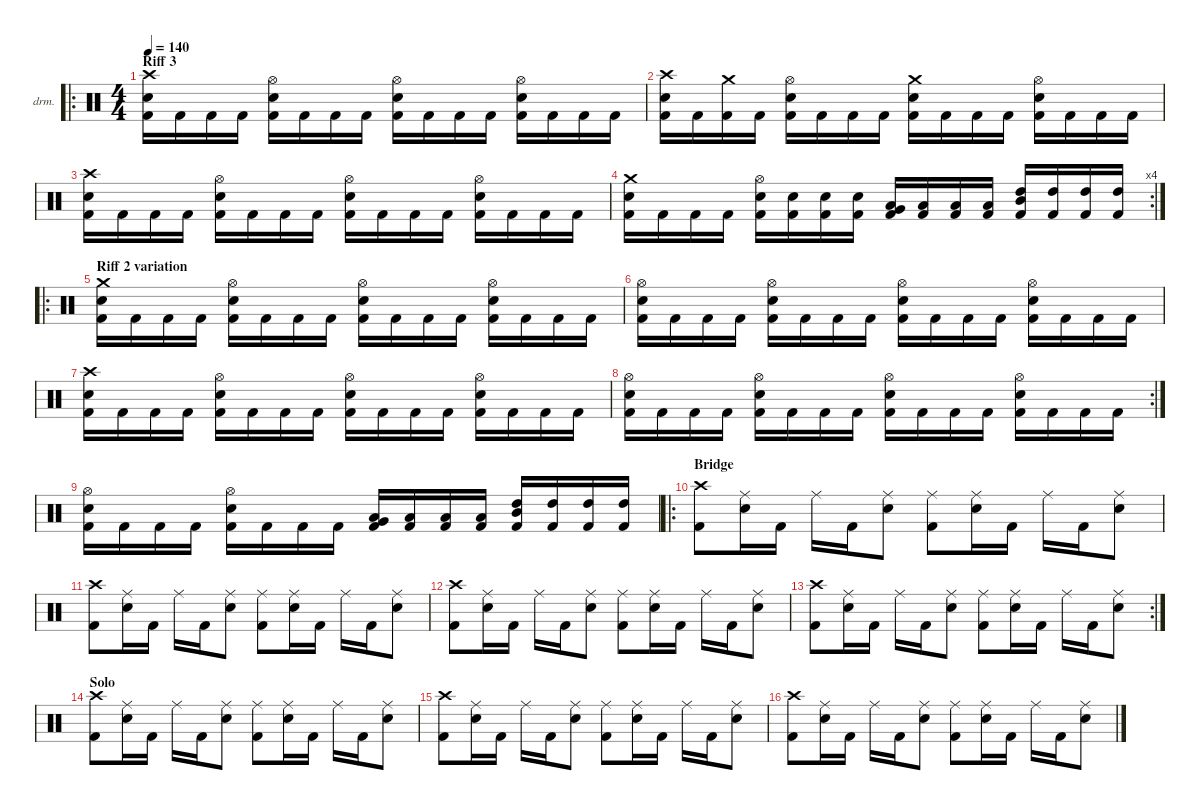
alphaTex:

\defaultSystemsLayout 4
\hideDynamics
\bracketExtendMode nobrackets
\firstSystemTrackNameOrientation horizontal
\otherSystemsTrackNameOrientation horizontal
\track ("Drumkit" "drm.") {instrument percussion}
\staff {score}
\articulation defaults
\ro
\ts (4 4)
\section ("" "Riff 3")
\tempo 140
\clef neutral
\ks c
("Crash high (hit)" "Snare (hit) 2" "Kick (hit) 2").16{dy f} "Kick (hit) 2".16 "Kick (hit) 2".16 "Kick (hit) 2".16 ("Hi-Hat (open)" "Snare (hit) 2" "Kick (hit) 2").16 "Kick (hit) 2".16 "Kick (hit) 2".16 "Kick (hit) 2".16 ("Hi-Hat (open)" "Snare (hit) 2" "Kick (hit) 2").16 "Kick (hit) 2".16 "Kick (hit) 2".16 "Kick (hit) 2".16 ("Hi-Hat (open)" "Snare (hit) 2" "Kick (hit) 2").16 "Kick (hit) 2".16 "Kick (hit) 2".16 "Kick (hit) 2".16 |
("Crash high (hit)" "Snare (hit) 2" "Kick (hit) 2").16 "Kick (hit) 2".16 ("Kick (hit) 2" "Crash medium (hit)").16 "Kick (hit) 2".16 ("Hi-Hat (open)" "Snare (hit) 2" "Kick (hit) 2").16 "Kick (hit) 2".16 "Kick (hit) 2".16 "Kick (hit) 2".16 ("Snare (hit) 2" "Kick (hit) 2" "Crash medium (hit)").16 "Kick (hit) 2".16 "Kick (hit) 2".16 "Kick (hit) 2".16 ("Hi-Hat (open)" "Snare (hit) 2" "Kick (hit) 2").16 "Kick (hit) 2".16 "Kick (hit) 2".16 "Kick (hit) 2".16 |
("Crash high (hit)" "Snare (hit) 2" "Kick (hit) 2").16 "Kick (hit) 2".16 "Kick (hit) 2".16 "Kick (hit) 2".16 ("Hi-Hat (open)" "Snare (hit) 2" "Kick (hit) 2").16 "Kick (hit) 2".16 "Kick (hit) 2".16 "Kick (hit) 2".16 ("Hi-Hat (open)" "Snare (hit) 2" "Kick (hit) 2").16 "Kick (hit) 2".16 "Kick (hit) 2".16 "Kick (hit) 2".16 ("Hi-Hat (open)" "Snare (hit) 2" "Kick (hit) 2").16 "Kick (hit) 2".16 "Kick (hit) 2".16 "Kick (hit) 2".16 |
\rc 4
("Snare (hit) 2" "Kick (hit) 2" "Crash medium (hit)").16 "Kick (hit) 2".16 "Kick (hit) 2".16 "Kick (hit) 2".16 ("Hi-Hat (open)" "Snare (hit) 2" "Kick (hit) 2").16 ("Kick (hit) 2" "Snare (hit) 2").16 ("Kick (hit) 2" "Snare (hit) 2").16 ("Kick (hit) 2" "Snare (hit) 2").16 ("Kick (hit) 2" "Very Low Tom (hit)" "Low Tom (hit)").16 ("Kick (hit) 2" "Low Tom (hit)").16 ("Kick (hit) 2" "Low Tom (hit)").16 ("Kick (hit) 2" "Low Tom (hit)").16 ("High Tom (hit)" "Mid Tom (hit)" "Kick (hit) 2").16 ("Kick (hit) 2" "High Tom (hit)").16 ("High Tom (hit)" "Kick (hit) 2").16 ("High Tom (hit)" "Kick (hit) 2").16 |
\ro
\section ("" "Riff 2 variation")
("Crash medium (hit)" "Snare (hit) 2" "Kick (hit) 2").16{dy mf} "Kick (hit) 2".16 "Kick (hit) 2".16 "Kick (hit) 2".16 ("Hi-Hat (open)" "Snare (hit) 2" "Kick (hit) 2").16 "Kick (hit) 2".16 "Kick (hit) 2".16 "Kick (hit) 2".16 ("Hi-Hat (open)" "Snare (hit) 2" "Kick (hit) 2").16 "Kick (hit) 2".16 "Kick (hit) 2".16 "Kick (hit) 2".16 ("Hi-Hat (open)" "Snare (hit) 2" "Kick (hit) 2").16 "Kick (hit) 2".16 "Kick (hit) 2".16 "Kick (hit) 2".16 |
("Hi-Hat (open)" "Snare (hit) 2" "Kick (hit) 2").16 "Kick (hit) 2".16 "Kick (hit) 2".16 "Kick (hit) 2".16 ("Hi-Hat (open)" "Snare (hit) 2" "Kick (hit) 2").16 "Kick (hit) 2".16 "Kick (hit) 2".16 "Kick (hit) 2".16 ("Hi-Hat (open)" "Snare (hit) 2" "Kick (hit) 2").16 "Kick (hit) 2".16 "Kick (hit) 2".16 "Kick (hit) 2".16 ("Hi-Hat (open)" "Snare (hit) 2" "Kick (hit) 2").16 "Kick (hit) 2".16 "Kick (hit) 2".16 "Kick (hit) 2".16 |
("Crash high (hit)" "Snare (hit) 2" "Kick (hit) 2").16 "Kick (hit) 2".16 "Kick (hit) 2".16 "Kick (hit) 2".16 ("Hi-Hat (open)" "Snare (hit) 2" "Kick (hit) 2").16 "Kick (hit) 2".16 "Kick (hit) 2".16 "Kick (hit) 2".16 ("Hi-Hat (open)" "Snare (hit) 2" "Kick (hit) 2").16 "Kick (hit) 2".16 "Kick (hit) 2".16 "Kick (hit) 2".16 ("Hi-Hat (open)" "Snare (hit) 2" "Kick (hit) 2").16 "Kick (hit) 2".16 "Kick (hit) 2".16 "Kick (hit) 2".16 |
\rc 2
("Hi-Hat (open)" "Snare (hit) 2" "Kick (hit) 2").16 "Kick (hit) 2".16 "Kick (hit) 2".16 "Kick (hit) 2".16 ("Hi-Hat (open)" "Snare (hit) 2" "Kick (hit) 2").16 "Kick (hit) 2".16 "Kick (hit) 2".16 "Kick (hit) 2".16 ("Hi-Hat (open)" "Snare (hit) 2" "Kick (hit) 2").16 "Kick (hit) 2".16 "Kick (hit) 2".16 "Kick (hit) 2".16 ("Hi-Hat (open)" "Snare (hit) 2" "Kick (hit) 2").16 "Kick (hit) 2".16 "Kick (hit) 2".16 "Kick (hit) 2".16 |
("Hi-Hat (open)" "Snare (hit) 2" "Kick (hit) 2").16 "Kick (hit) 2".16 "Kick (hit) 2".16 "Kick (hit) 2".16 ("Hi-Hat (open)" "Snare (hit) 2" "Kick (hit) 2").16 "Kick (hit) 2".16 "Kick (hit) 2".16 "Kick (hit) 2".16 ("Kick (hit) 2" "Very Low Tom (hit)" "Low Tom (hit)").16{dy f} ("Kick (hit) 2" "Low Tom (hit)").16 ("Kick (hit) 2" "Low Tom (hit)").16 ("Kick (hit) 2" "Low Tom (hit)").16 ("High Tom (hit)" "Mid Tom (hit)" "Kick (hit) 2").16 ("Kick (hit) 2" "High Tom (hit)").16 ("High Tom (hit)" "Kick (hit) 2").16 ("High Tom (hit)" "Kick (hit) 2").16 |
\ro
\section ("" "Bridge")
("Crash high (hit)" "Kick (hit) 2").8 ("Ride (middle)" "Snare (hit) 2").16 "Kick (hit) 2".16 "Ride (middle)".16 "Kick (hit) 2".16 ("Ride (middle)" "Snare (hit) 2").8 ("Ride (middle)" "Kick (hit) 2").8 ("Ride (middle)" "Snare (hit) 2").16 "Kick (hit) 2".16 "Ride (middle)".16 "Kick (hit) 2".16 ("Ride (middle)" "Snare (hit) 2").8 |
("Crash high (hit)" "Kick (hit) 2").8 ("Ride (middle)" "Snare (hit) 2").16 "Kick (hit) 2".16 "Ride (middle)".16 "Kick (hit) 2".16 ("Ride (middle)" "Snare (hit) 2").8 ("Ride (middle)" "Kick (hit) 2").8 ("Ride (middle)" "Snare (hit) 2").16 "Kick (hit) 2".16 "Ride (middle)".16 "Kick (hit) 2".16 ("Ride (middle)" "Snare (hit) 2").8 |
("Crash high (hit)" "Kick (hit) 2").8 ("Ride (middle)" "Snare (hit) 2").16 "Kick (hit) 2".16 "Ride (middle)".16 "Kick (hit) 2".16 ("Ride (middle)" "Snare (hit) 2").8 ("Ride (middle)" "Kick (hit) 2").8 ("Ride (middle)" "Snare (hit) 2").16 "Kick (hit) 2".16 "Ride (middle)".16 "Kick (hit) 2".16 ("Ride (middle)" "Snare (hit) 2").8 |
\rc 2
("Crash high (hit)" "Kick (hit) 2").8 ("Ride (middle)" "Snare (hit) 2").16 "Kick (hit) 2".16 "Ride (middle)".16 "Kick (hit) 2".16 ("Ride (middle)" "Snare (hit) 2").8 ("Ride (middle)" "Kick (hit) 2").8 ("Ride (middle)" "Snare (hit) 2").16 "Kick (hit) 2".16 "Ride (middle)".16 "Kick (hit) 2".16 ("Ride (middle)" "Snare (hit) 2").8 |
\section ("" "Solo")
("Crash high (hit)" "Kick (hit) 2").8 ("Ride (middle)" "Snare (hit) 2").16 "Kick (hit) 2".16 "Ride (middle)".16 "Kick (hit) 2".16 ("Ride (middle)" "Snare (hit) 2").8 ("Ride (middle)" "Kick (hit) 2").8 ("Ride (middle)" "Snare (hit) 2").16 "Kick (hit) 2".16 "Ride (middle)".16 "Kick (hit) 2".16 ("Ride (middle)" "Snare (hit) 2").8 |
("Crash high (hit)" "Kick (hit) 2").8 ("Ride (middle)" "Snare (hit) 2").16 "Kick (hit) 2".16 "Ride (middle)".16 "Kick (hit) 2".16 ("Ride (middle)" "Snare (hit) 2").8 ("Ride (middle)" "Kick (hit) 2").8 ("Ride (middle)" "Snare (hit) 2").16 "Kick (hit) 2".16 "Ride (middle)".16 "Kick (hit) 2".16 ("Ride (middle)" "Snare (hit) 2").8 |
("Crash high (hit)" "Kick (hit) 2").8 ("Ride (middle)" "Snare (hit) 2").16 "Kick (hit) 2".16 "Ride (middle)".16 "Kick (hit) 2".16 ("Ride (middle)" "Snare (hit) 2").8 ("Ride (middle)" "Kick (hit) 2").8 ("Ride (middle)" "Snare (hit) 2").16 "Kick (hit) 2".16 "Ride (middle)".16 "Kick (hit) 2".16 ("Ride (middle)" "Snare (hit) 2").8
